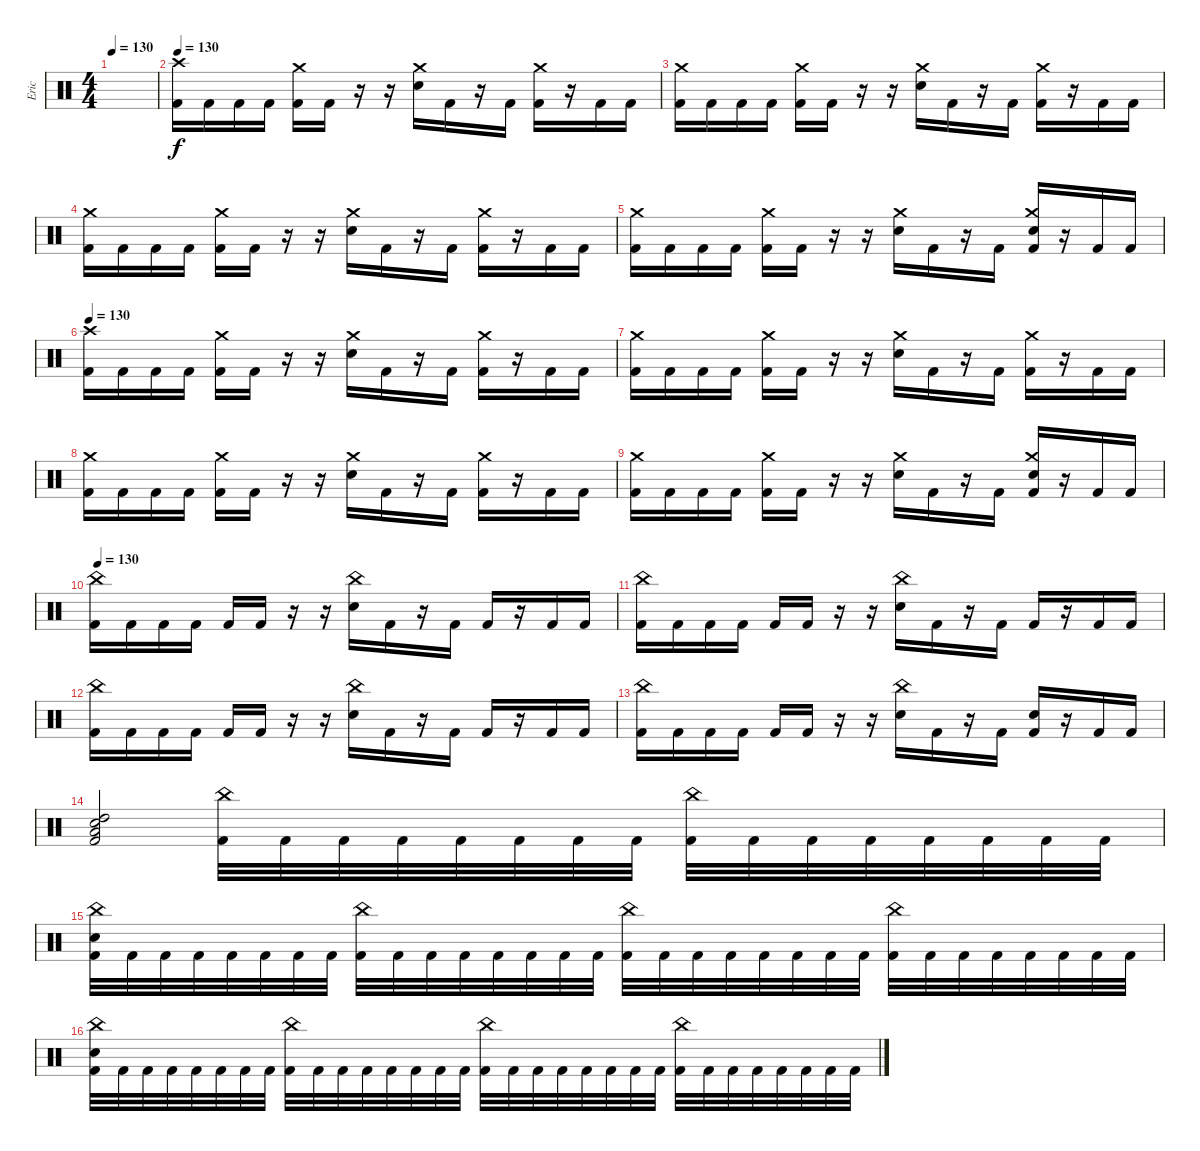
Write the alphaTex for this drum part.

\track ("Eric" "Eric") {instrument percussion}
\staff {score}
\articulation defaults
\ts (4 4)
\tempo 130
\clef neutral
\ks c
|
\tempo 130
("Crash high (hit)" "Kick (hit) 2").16 "Kick (hit) 2".16 "Kick (hit) 2".16 "Kick (hit) 2".16 ("Crash medium (hit)" "Kick (hit) 2").16 "Kick (hit) 2".16 r.16 r.16 ("Crash medium (hit)" "Electric Snare (hit)").16 "Kick (hit) 2".16 r.16 "Kick (hit) 2".16 ("Crash medium (hit)" "Kick (hit) 2").16 r.16 "Kick (hit) 2".16 "Kick (hit) 2".16 |
("Crash medium (hit)" "Kick (hit) 2").16 "Kick (hit) 2".16 "Kick (hit) 2".16 "Kick (hit) 2".16 ("Crash medium (hit)" "Kick (hit) 2").16 "Kick (hit) 2".16 r.16 r.16 ("Crash medium (hit)" "Electric Snare (hit)").16 "Kick (hit) 2".16 r.16 "Kick (hit) 2".16 ("Crash medium (hit)" "Kick (hit) 2").16 r.16 "Kick (hit) 2".16 "Kick (hit) 2".16 |
("Crash medium (hit)" "Kick (hit) 2").16 "Kick (hit) 2".16 "Kick (hit) 2".16 "Kick (hit) 2".16 ("Crash medium (hit)" "Kick (hit) 2").16 "Kick (hit) 2".16 r.16 r.16 ("Crash medium (hit)" "Electric Snare (hit)").16 "Kick (hit) 2".16 r.16 "Kick (hit) 2".16 ("Crash medium (hit)" "Kick (hit) 2").16 r.16 "Kick (hit) 2".16 "Kick (hit) 2".16 |
("Crash medium (hit)" "Kick (hit) 2").16 "Kick (hit) 2".16 "Kick (hit) 2".16 "Kick (hit) 2".16 ("Crash medium (hit)" "Kick (hit) 2").16 "Kick (hit) 2".16 r.16 r.16 ("Crash medium (hit)" "Electric Snare (hit)").16 "Kick (hit) 2".16 r.16 "Kick (hit) 2".16 ("Crash medium (hit)" "Electric Snare (hit)" "Kick (hit) 2").16 r.16 "Kick (hit) 2".16 "Kick (hit) 2".16 |
\tempo 130
("Crash high (hit)" "Kick (hit) 2").16 "Kick (hit) 2".16 "Kick (hit) 2".16 "Kick (hit) 2".16 ("Crash medium (hit)" "Kick (hit) 2").16 "Kick (hit) 2".16 r.16 r.16 ("Crash medium (hit)" "Electric Snare (hit)").16 "Kick (hit) 2".16 r.16 "Kick (hit) 2".16 ("Crash medium (hit)" "Kick (hit) 2").16 r.16 "Kick (hit) 2".16 "Kick (hit) 2".16 |
("Crash medium (hit)" "Kick (hit) 2").16 "Kick (hit) 2".16 "Kick (hit) 2".16 "Kick (hit) 2".16 ("Crash medium (hit)" "Kick (hit) 2").16 "Kick (hit) 2".16 r.16 r.16 ("Crash medium (hit)" "Electric Snare (hit)").16 "Kick (hit) 2".16 r.16 "Kick (hit) 2".16 ("Crash medium (hit)" "Kick (hit) 2").16 r.16 "Kick (hit) 2".16 "Kick (hit) 2".16 |
("Crash medium (hit)" "Kick (hit) 2").16 "Kick (hit) 2".16 "Kick (hit) 2".16 "Kick (hit) 2".16 ("Crash medium (hit)" "Kick (hit) 2").16 "Kick (hit) 2".16 r.16 r.16 ("Crash medium (hit)" "Electric Snare (hit)").16 "Kick (hit) 2".16 r.16 "Kick (hit) 2".16 ("Crash medium (hit)" "Kick (hit) 2").16 r.16 "Kick (hit) 2".16 "Kick (hit) 2".16 |
("Crash medium (hit)" "Kick (hit) 2").16 "Kick (hit) 2".16 "Kick (hit) 2".16 "Kick (hit) 2".16 ("Crash medium (hit)" "Kick (hit) 2").16 "Kick (hit) 2".16 r.16 r.16 ("Crash medium (hit)" "Electric Snare (hit)").16 "Kick (hit) 2".16 r.16 "Kick (hit) 2".16 ("Crash medium (hit)" "Electric Snare (hit)" "Kick (hit) 2").16 r.16 "Kick (hit) 2".16 "Kick (hit) 2".16 |
\tempo 130
("China (hit)" "Kick (hit) 2").16 "Kick (hit) 2".16 "Kick (hit) 2".16 "Kick (hit) 2".16 "Kick (hit) 2".16 "Kick (hit) 2".16 r.16 r.16 ("China (hit)" "Electric Snare (hit)").16 "Kick (hit) 2".16 r.16 "Kick (hit) 2".16 "Kick (hit) 2".16 r.16 "Kick (hit) 2".16 "Kick (hit) 2".16 |
("China (hit)" "Kick (hit) 2").16 "Kick (hit) 2".16 "Kick (hit) 2".16 "Kick (hit) 2".16 "Kick (hit) 2".16 "Kick (hit) 2".16 r.16 r.16 ("China (hit)" "Electric Snare (hit)").16 "Kick (hit) 2".16 r.16 "Kick (hit) 2".16 "Kick (hit) 2".16 r.16 "Kick (hit) 2".16 "Kick (hit) 2".16 |
("China (hit)" "Kick (hit) 2").16 "Kick (hit) 2".16 "Kick (hit) 2".16 "Kick (hit) 2".16 "Kick (hit) 2".16 "Kick (hit) 2".16 r.16 r.16 ("China (hit)" "Electric Snare (hit)").16 "Kick (hit) 2".16 r.16 "Kick (hit) 2".16 "Kick (hit) 2".16 r.16 "Kick (hit) 2".16 "Kick (hit) 2".16 |
("China (hit)" "Kick (hit) 2").16 "Kick (hit) 2".16 "Kick (hit) 2".16 "Kick (hit) 2".16 "Kick (hit) 2".16 "Kick (hit) 2".16 r.16 r.16 ("China (hit)" "Electric Snare (hit)").16 "Kick (hit) 2".16 r.16 "Kick (hit) 2".16 ("Electric Snare (hit)" "Kick (hit) 2").16 r.16 "Kick (hit) 2".16 "Kick (hit) 2".16 |
("Low Tom (hit)" "High Tom (hit)" "Kick (hit) 2" "Electric Snare (hit)").2 ("China (hit)" "Kick (hit) 2").32 "Kick (hit) 2".32 "Kick (hit) 2".32 "Kick (hit) 2".32 "Kick (hit) 2".32 "Kick (hit) 2".32 "Kick (hit) 2".32 "Kick (hit) 2".32 ("China (hit)" "Kick (hit) 2").32 "Kick (hit) 2".32 "Kick (hit) 2".32 "Kick (hit) 2".32 "Kick (hit) 2".32 "Kick (hit) 2".32 "Kick (hit) 2".32 "Kick (hit) 2".32 |
("China (hit)" "Electric Snare (hit)" "Kick (hit) 2").32 "Kick (hit) 2".32 "Kick (hit) 2".32 "Kick (hit) 2".32 "Kick (hit) 2".32 "Kick (hit) 2".32 "Kick (hit) 2".32 "Kick (hit) 2".32 ("China (hit)" "Kick (hit) 2").32 "Kick (hit) 2".32 "Kick (hit) 2".32 "Kick (hit) 2".32 "Kick (hit) 2".32 "Kick (hit) 2".32 "Kick (hit) 2".32 "Kick (hit) 2".32 ("China (hit)" "Kick (hit) 2").32 "Kick (hit) 2".32 "Kick (hit) 2".32 "Kick (hit) 2".32 "Kick (hit) 2".32 "Kick (hit) 2".32 "Kick (hit) 2".32 "Kick (hit) 2".32 ("China (hit)" "Kick (hit) 2").32 "Kick (hit) 2".32 "Kick (hit) 2".32 "Kick (hit) 2".32 "Kick (hit) 2".32 "Kick (hit) 2".32 "Kick (hit) 2".32 "Kick (hit) 2".32 |
("China (hit)" "Electric Snare (hit)" "Kick (hit) 2").32 "Kick (hit) 2".32 "Kick (hit) 2".32 "Kick (hit) 2".32 "Kick (hit) 2".32 "Kick (hit) 2".32 "Kick (hit) 2".32 "Kick (hit) 2".32 ("China (hit)" "Kick (hit) 2").32 "Kick (hit) 2".32 "Kick (hit) 2".32 "Kick (hit) 2".32 "Kick (hit) 2".32 "Kick (hit) 2".32 "Kick (hit) 2".32 "Kick (hit) 2".32 ("China (hit)" "Kick (hit) 2").32 "Kick (hit) 2".32 "Kick (hit) 2".32 "Kick (hit) 2".32 "Kick (hit) 2".32 "Kick (hit) 2".32 "Kick (hit) 2".32 "Kick (hit) 2".32 ("China (hit)" "Kick (hit) 2").32 "Kick (hit) 2".32 "Kick (hit) 2".32 "Kick (hit) 2".32 "Kick (hit) 2".32 "Kick (hit) 2".32 "Kick (hit) 2".32 "Kick (hit) 2".32
